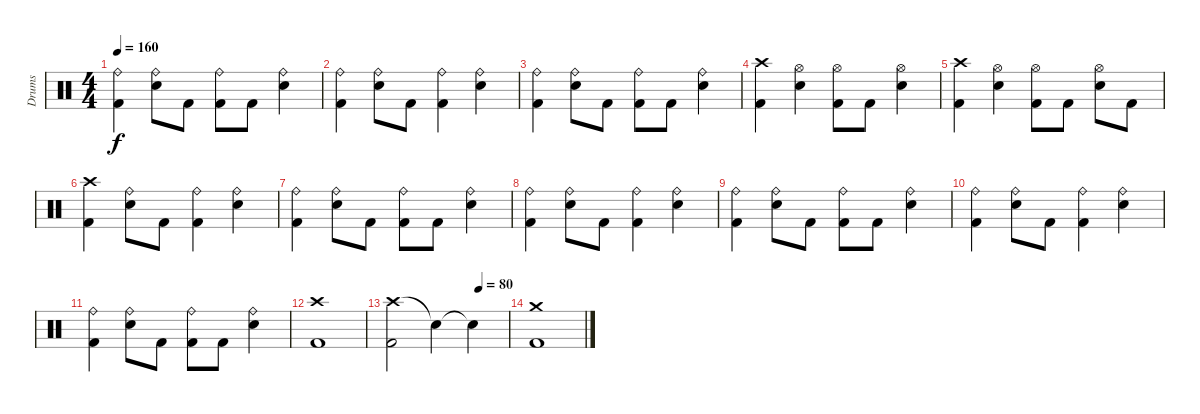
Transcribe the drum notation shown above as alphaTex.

\track ("Drums" "Drums") {instrument percussion}
\staff {score}
\articulation defaults
\ts (4 4)
\tempo 160
\clef neutral
\ks c
("Ride (bell)" "Kick (hit) 2").4{dy f} ("Ride (bell)" "Electric Snare (hit)").8 "Kick (hit) 2".8 ("Ride (bell)" "Kick (hit) 2").8 "Kick (hit) 2".8 ("Ride (bell)" "Electric Snare (hit)").4 |
("Ride (bell)" "Kick (hit) 2").4 ("Ride (bell)" "Electric Snare (hit)").8 "Kick (hit) 2".8 ("Ride (bell)" "Kick (hit) 2").4 ("Ride (bell)" "Electric Snare (hit)").4 |
("Ride (bell)" "Kick (hit) 2").4 ("Ride (bell)" "Electric Snare (hit)").8 "Kick (hit) 2".8 ("Ride (bell)" "Kick (hit) 2").8 "Kick (hit) 2".8 ("Ride (bell)" "Electric Snare (hit)").4 |
("Crash high (hit)" "Kick (hit) 2").4 ("Hi-Hat (open)" "Electric Snare (hit)").4 ("Hi-Hat (open)" "Kick (hit) 2").8 "Kick (hit) 2".8 ("Hi-Hat (open)" "Electric Snare (hit)").4 |
("Crash high (hit)" "Kick (hit) 2").4 ("Hi-Hat (open)" "Electric Snare (hit)").4 ("Hi-Hat (open)" "Kick (hit) 2").8 "Kick (hit) 2".8 ("Hi-Hat (open)" "Electric Snare (hit)").8 "Kick (hit) 2".8 |
("Crash high (hit)" "Kick (hit) 2").4 ("Ride (bell)" "Electric Snare (hit)").8 "Kick (hit) 2".8 ("Ride (bell)" "Kick (hit) 2").4 ("Ride (bell)" "Electric Snare (hit)").4 |
("Ride (bell)" "Kick (hit) 2").4 ("Ride (bell)" "Electric Snare (hit)").8 "Kick (hit) 2".8 ("Ride (bell)" "Kick (hit) 2").8 "Kick (hit) 2".8 ("Ride (bell)" "Electric Snare (hit)").4 |
("Ride (bell)" "Kick (hit) 2").4 ("Ride (bell)" "Electric Snare (hit)").8 "Kick (hit) 2".8 ("Ride (bell)" "Kick (hit) 2").4 ("Ride (bell)" "Electric Snare (hit)").4 |
("Ride (bell)" "Kick (hit) 2").4 ("Ride (bell)" "Electric Snare (hit)").8 "Kick (hit) 2".8 ("Ride (bell)" "Kick (hit) 2").8 "Kick (hit) 2".8 ("Ride (bell)" "Electric Snare (hit)").4 |
("Ride (bell)" "Kick (hit) 2").4 ("Ride (bell)" "Electric Snare (hit)").8 "Kick (hit) 2".8 ("Ride (bell)" "Kick (hit) 2").4 ("Ride (bell)" "Electric Snare (hit)").4 |
("Ride (bell)" "Kick (hit) 2").4 ("Ride (bell)" "Electric Snare (hit)").8 "Kick (hit) 2".8 ("Ride (bell)" "Kick (hit) 2").8 "Kick (hit) 2".8 ("Ride (bell)" "Electric Snare (hit)").4 |
("Crash high (hit)" "Kick (hit) 2").1 |
\tempo (80 0.75)
("Crash high (hit)" "Kick (hit) 2").2 "Snare (hit)"{t}.4 "Snare (hit)"{t}.4 |
("Crash medium (hit)" "Kick (hit) 2").1
